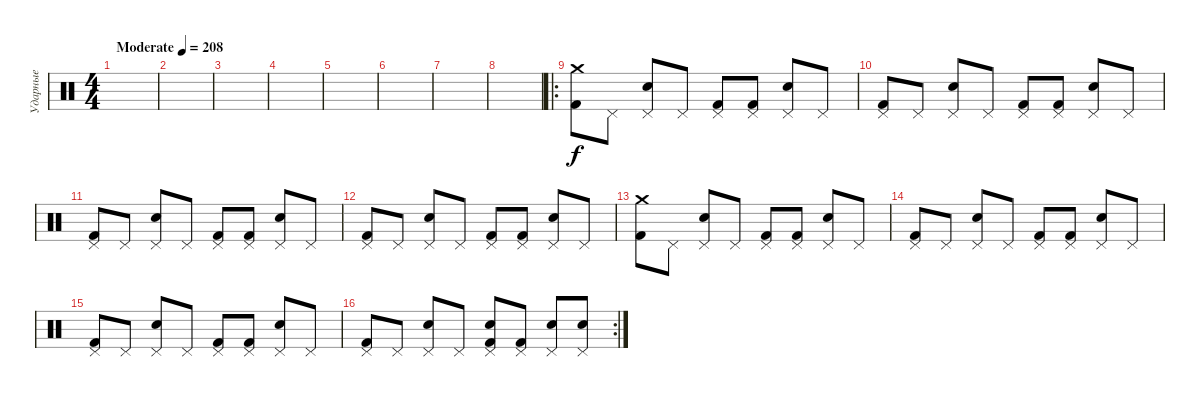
\track ("Ударные" "Ударные") {instrument percussion}
\staff {score}
\articulation defaults
\ts (4 4)
\tempo (208 "Moderate")
\clef neutral
\ks c
|
|
|
|
|
|
|
|
\ro
("Crash medium (hit)" "Kick (hit) 2").8 "Pedal Hi-Hat (hit)".8 ("Pedal Hi-Hat (hit)" "Electric Snare (hit)").8 "Pedal Hi-Hat (hit)".8 ("Pedal Hi-Hat (hit)" "Kick (hit) 2").8 ("Pedal Hi-Hat (hit)" "Kick (hit) 2").8 ("Pedal Hi-Hat (hit)" "Electric Snare (hit)").8 "Pedal Hi-Hat (hit)".8 |
("Pedal Hi-Hat (hit)" "Kick (hit) 2").8 "Pedal Hi-Hat (hit)".8 ("Pedal Hi-Hat (hit)" "Electric Snare (hit)").8 "Pedal Hi-Hat (hit)".8 ("Pedal Hi-Hat (hit)" "Kick (hit) 2").8 ("Pedal Hi-Hat (hit)" "Kick (hit) 2").8 ("Pedal Hi-Hat (hit)" "Electric Snare (hit)").8 "Pedal Hi-Hat (hit)".8 |
("Pedal Hi-Hat (hit)" "Kick (hit) 2").8 "Pedal Hi-Hat (hit)".8 ("Pedal Hi-Hat (hit)" "Electric Snare (hit)").8 "Pedal Hi-Hat (hit)".8 ("Pedal Hi-Hat (hit)" "Kick (hit) 2").8 ("Pedal Hi-Hat (hit)" "Kick (hit) 2").8 ("Pedal Hi-Hat (hit)" "Electric Snare (hit)").8 "Pedal Hi-Hat (hit)".8 |
("Pedal Hi-Hat (hit)" "Kick (hit) 2").8 "Pedal Hi-Hat (hit)".8 ("Pedal Hi-Hat (hit)" "Electric Snare (hit)").8 "Pedal Hi-Hat (hit)".8 ("Pedal Hi-Hat (hit)" "Kick (hit) 2").8 ("Pedal Hi-Hat (hit)" "Kick (hit) 2").8 ("Pedal Hi-Hat (hit)" "Electric Snare (hit)").8 "Pedal Hi-Hat (hit)".8 |
("Crash medium (hit)" "Kick (hit) 2").8 "Pedal Hi-Hat (hit)".8 ("Pedal Hi-Hat (hit)" "Electric Snare (hit)").8 "Pedal Hi-Hat (hit)".8 ("Pedal Hi-Hat (hit)" "Kick (hit) 2").8 ("Pedal Hi-Hat (hit)" "Kick (hit) 2").8 ("Pedal Hi-Hat (hit)" "Electric Snare (hit)").8 "Pedal Hi-Hat (hit)".8 |
("Pedal Hi-Hat (hit)" "Kick (hit) 2").8 "Pedal Hi-Hat (hit)".8 ("Pedal Hi-Hat (hit)" "Electric Snare (hit)").8 "Pedal Hi-Hat (hit)".8 ("Pedal Hi-Hat (hit)" "Kick (hit) 2").8 ("Pedal Hi-Hat (hit)" "Kick (hit) 2").8 ("Pedal Hi-Hat (hit)" "Electric Snare (hit)").8 "Pedal Hi-Hat (hit)".8 |
("Pedal Hi-Hat (hit)" "Kick (hit) 2").8 "Pedal Hi-Hat (hit)".8 ("Pedal Hi-Hat (hit)" "Electric Snare (hit)").8 "Pedal Hi-Hat (hit)".8 ("Pedal Hi-Hat (hit)" "Kick (hit) 2").8 ("Pedal Hi-Hat (hit)" "Kick (hit) 2").8 ("Pedal Hi-Hat (hit)" "Electric Snare (hit)").8 "Pedal Hi-Hat (hit)".8 |
\rc 2
("Pedal Hi-Hat (hit)" "Kick (hit) 2").8 "Pedal Hi-Hat (hit)".8 ("Pedal Hi-Hat (hit)" "Electric Snare (hit)").8 "Pedal Hi-Hat (hit)".8 ("Pedal Hi-Hat (hit)" "Electric Snare (hit)" "Kick (hit) 2").8 ("Pedal Hi-Hat (hit)" "Kick (hit) 2").8 ("Pedal Hi-Hat (hit)" "Electric Snare (hit)").8 ("Pedal Hi-Hat (hit)" "Electric Snare (hit)").8
